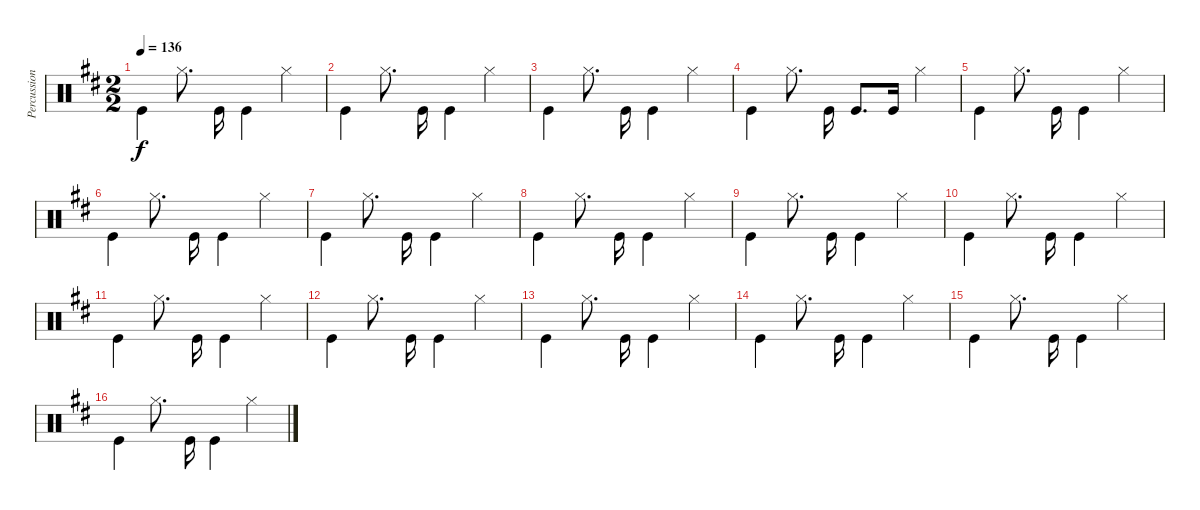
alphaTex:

\track ("Percussion" "Percussion") {instrument percussion}
\staff {score}
\articulation defaults
\ts (2 2)
\tempo 136
\clef neutral
\ks d "Kick (hit)".4{dy f beam Down} "Hi-Hat (closed)".8{d beam split} "Kick (hit)".16{beam Down} "Kick (hit)".4{beam Down} "Hi-Hat (closed)".4
|
"Kick (hit)".4{beam Down} "Hi-Hat (closed)".8{d beam split} "Kick (hit)".16{beam Down} "Kick (hit)".4{beam Down} "Hi-Hat (closed)".4 |
"Kick (hit)".4{beam Down} "Hi-Hat (closed)".8{d beam split} "Kick (hit)".16{beam Down} "Kick (hit)".4{beam Down} "Hi-Hat (closed)".4 |
"Kick (hit)".4{beam Down} "Hi-Hat (closed)".8{d beam split} "Kick (hit)".16{beam Down beam split} "Kick (hit)".8{d beam merge} "Kick (hit)".16 "Hi-Hat (closed)".4 |
"Kick (hit)".4{beam Down} "Hi-Hat (closed)".8{d beam split} "Kick (hit)".16{beam Down} "Kick (hit)".4{beam Down} "Hi-Hat (closed)".4 |
"Kick (hit)".4{beam Down} "Hi-Hat (closed)".8{d beam split} "Kick (hit)".16{beam Down} "Kick (hit)".4{beam Down} "Hi-Hat (closed)".4 |
"Kick (hit)".4{beam Down} "Hi-Hat (closed)".8{d beam split} "Kick (hit)".16{beam Down} "Kick (hit)".4{beam Down} "Hi-Hat (closed)".4 |
"Kick (hit)".4{beam Down} "Hi-Hat (closed)".8{d beam split} "Kick (hit)".16{beam Down} "Kick (hit)".4{beam Down} "Hi-Hat (closed)".4 |
"Kick (hit)".4{beam Down} "Hi-Hat (closed)".8{d beam split} "Kick (hit)".16{beam Down} "Kick (hit)".4{beam Down} "Hi-Hat (closed)".4 |
"Kick (hit)".4{beam Down} "Hi-Hat (closed)".8{d beam split} "Kick (hit)".16{beam Down} "Kick (hit)".4{beam Down} "Hi-Hat (closed)".4 |
"Kick (hit)".4{beam Down} "Hi-Hat (closed)".8{d beam split} "Kick (hit)".16{beam Down} "Kick (hit)".4{beam Down} "Hi-Hat (closed)".4 |
"Kick (hit)".4{beam Down} "Hi-Hat (closed)".8{d beam split} "Kick (hit)".16{beam Down} "Kick (hit)".4{beam Down} "Hi-Hat (closed)".4 |
"Kick (hit)".4{beam Down} "Hi-Hat (closed)".8{d beam split} "Kick (hit)".16{beam Down} "Kick (hit)".4{beam Down} "Hi-Hat (closed)".4 |
"Kick (hit)".4{beam Down} "Hi-Hat (closed)".8{d beam split} "Kick (hit)".16{beam Down} "Kick (hit)".4{beam Down} "Hi-Hat (closed)".4 |
"Kick (hit)".4{beam Down} "Hi-Hat (closed)".8{d beam split} "Kick (hit)".16{beam Down} "Kick (hit)".4{beam Down} "Hi-Hat (closed)".4 |
"Kick (hit)".4{beam Down} "Hi-Hat (closed)".8{d beam split} "Kick (hit)".16{beam Down} "Kick (hit)".4{beam Down} "Hi-Hat (closed)".4
